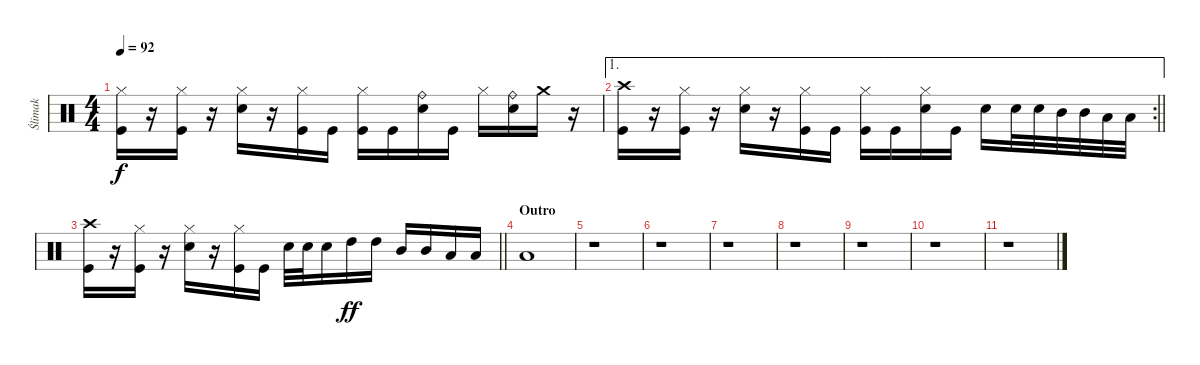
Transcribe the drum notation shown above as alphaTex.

\track ("Ślimak" "Ślimak") {instrument percussion}
\staff {score}
\articulation defaults
\ts (4 4)
\tempo 92
\clef neutral
\ks c
("Hi-Hat (closed)" "Kick (hit)").16{dy f} r.16 ("Hi-Hat (closed)" "Kick (hit)").16 r.16 ("Hi-Hat (closed)" "Snare (hit) 2").16 r.16 ("Hi-Hat (closed)" "Kick (hit)").16 "Kick (hit)".16 ("Hi-Hat (closed)" "Kick (hit)").16 "Kick (hit)".16 ("Ride (bell)" "Snare (hit) 2").16 "Kick (hit)".16 "Hi-Hat (closed)".16 ("Ride (bell)" "Snare (hit) 2").16 "Crash medium (hit)".16 r.16 |
\ae 1
\rc 2
\barLineRight lightlight
("Crash high (hit)" "Kick (hit)").16 r.16 ("Hi-Hat (closed)" "Kick (hit)").16 r.16 ("Hi-Hat (closed)" "Snare (hit) 2").16 r.16 ("Hi-Hat (closed)" "Kick (hit)").16 "Kick (hit)".16 ("Hi-Hat (closed)" "Kick (hit)").16 "Kick (hit)".16 ("Hi-Hat (closed)" "Snare (hit) 2").16 "Kick (hit)".16 "Snare (hit) 2".16 "Snare (hit) 2".32 "Snare (hit) 2".32 "Mid Tom (hit)".32 "Mid Tom (hit)".32 "Low Tom (hit)".32 "Low Tom (hit)".32 |
\barLineRight lightlight
("Crash high (hit)" "Kick (hit)").16 r.16 ("Hi-Hat (closed)" "Kick (hit)").16 r.16 ("Hi-Hat (closed)" "Snare (hit) 2").16 r.16 ("Hi-Hat (closed)" "Kick (hit)").16 "Kick (hit)".16 "Snare (hit) 2".32 "Snare (hit) 2".32 "Snare (hit) 2".16 "High Tom (hit)".16{dy ff} "High Tom (hit)".16 "Mid Tom (hit)".16 "Mid Tom (hit)".16 "Low Tom (hit)".16 "Low Tom (hit)".16 |
\section ("" "Outro")
"Low Floor Tom (hit)".1 |
r.1 |
r.1 |
r.1 |
r.1 |
r.1 |
r.1 |
r.1
